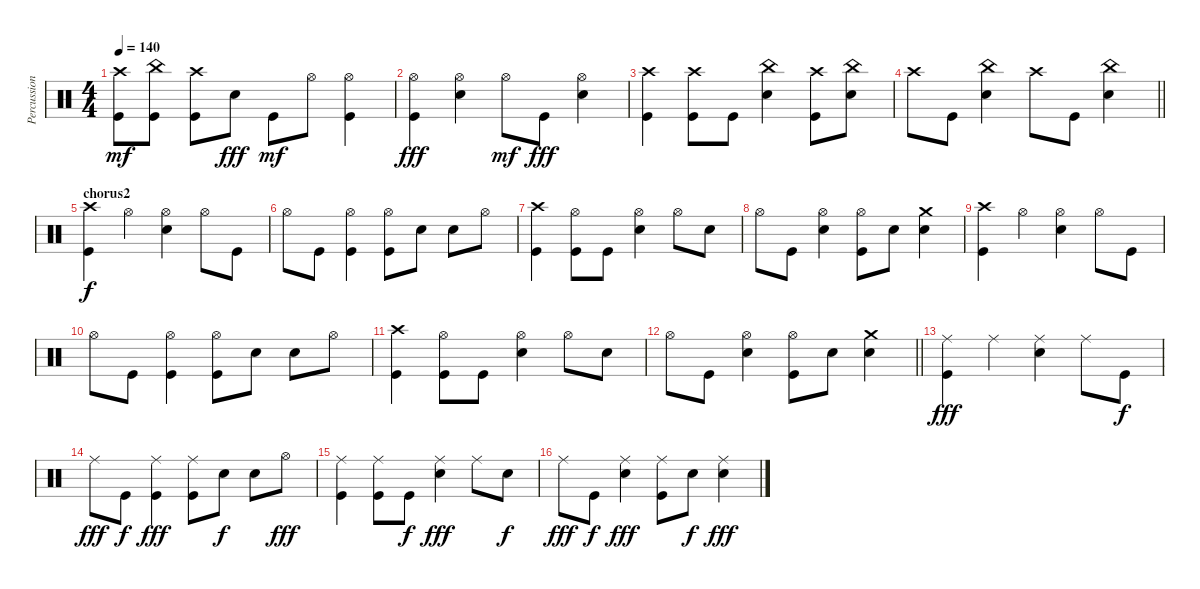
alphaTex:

\track ("Percussion" "Percussion") {instrument percussion}
\staff {score}
\articulation defaults
\ts (4 4)
\tempo 140
\clef neutral
\ks c
("Kick (hit)" "Crash high (hit)").8{dy mf} ("Kick (hit)" "China (hit)").8 ("Kick (hit)" "Crash high (hit)").8 "Snare (hit) 2".8{dy fff} "Kick (hit)".8{dy mf} "Hi-Hat (open)".8 ("Kick (hit)" "Hi-Hat (open)").4 |
("Hi-Hat (open)" "Kick (hit)").4{dy fff} ("Hi-Hat (open)" "Snare (hit) 2").4 "Hi-Hat (open)".8{dy mf} "Kick (hit)".8{dy fff} ("Hi-Hat (open)" "Snare (hit) 2").4 |
("Kick (hit)" "Crash high (hit)").4 ("Kick (hit)" "Crash high (hit)").8 "Kick (hit)".8 ("Snare (hit) 2" "China (hit)").4 ("Crash high (hit)" "Kick (hit)").8 ("Snare (hit) 2" "China (hit)").8 |
\barLineRight lightlight "Crash high (hit)".8 "Kick (hit)".8
("Snare (hit) 2" "China (hit)").4 "Crash high (hit)".8 "Kick (hit)".8 ("Snare (hit) 2" "China (hit)").4 |
\section ("" "chorus2")
("Kick (hit)" "Crash high (hit)").4{dy f} "Hi-Hat (open)".4 ("Hi-Hat (open)" "Snare (hit) 2").4 "Hi-Hat (open)".8 "Kick (hit)".8 |
"Hi-Hat (open)".8 "Kick (hit)".8 ("Hi-Hat (open)" "Kick (hit)").4 ("Hi-Hat (open)" "Kick (hit)").8 "Snare (hit) 2".8 "Snare (hit) 2".8 "Hi-Hat (open)".8 |
("Crash high (hit)" "Kick (hit)").4 ("Hi-Hat (open)" "Kick (hit)").8 "Kick (hit)".8 ("Hi-Hat (open)" "Snare (hit) 2").4 "Hi-Hat (open)".8 "Snare (hit) 2".8 |
"Hi-Hat (open)".8 "Kick (hit)".8 ("Snare (hit) 2" "Hi-Hat (open)").4 ("Kick (hit)" "Hi-Hat (open)").8 "Snare (hit) 2".8 ("Snare (hit) 2" "Crash medium (hit)").4 |
("Crash high (hit)" "Kick (hit)").4 "Hi-Hat (open)".4 ("Hi-Hat (open)" "Snare (hit) 2").4 "Hi-Hat (open)".8 "Kick (hit)".8 |
"Hi-Hat (open)".8 "Kick (hit)".8 ("Hi-Hat (open)" "Kick (hit)").4 ("Hi-Hat (open)" "Kick (hit)").8 "Snare (hit) 2".8 "Snare (hit) 2".8 "Hi-Hat (open)".8 |
("Crash high (hit)" "Kick (hit)").4 ("Hi-Hat (open)" "Kick (hit)").8 "Kick (hit)".8 ("Hi-Hat (open)" "Snare (hit) 2").4 "Hi-Hat (open)".8 "Snare (hit) 2".8 |
\barLineRight lightlight "Hi-Hat (open)".8 "Kick (hit)".8
("Snare (hit) 2" "Hi-Hat (open)").4 ("Kick (hit)" "Hi-Hat (open)").8 "Snare (hit) 2".8 ("Snare (hit) 2" "Crash medium (hit)").4 |
("Ride (middle)" "Kick (hit)").4{dy fff} "Ride (middle)".4 ("Ride (middle)" "Snare (hit) 2").4 "Ride (middle)".8 "Kick (hit)".8{dy f} |
"Ride (middle)".8{dy fff} "Kick (hit)".8{dy f} ("Ride (middle)" "Kick (hit)").4{dy fff} ("Ride (middle)" "Kick (hit)").8 "Snare (hit) 2".8{dy f} "Snare (hit) 2".8 "Hi-Hat (open)".8{dy fff} |
("Ride (middle)" "Kick (hit)").4 ("Ride (middle)" "Kick (hit)").8 "Kick (hit)".8{dy f} ("Ride (middle)" "Snare (hit) 2").4{dy fff} "Ride (middle)".8 "Snare (hit) 2".8{dy f} |
"Ride (middle)".8{dy fff} "Kick (hit)".8{dy f} ("Snare (hit) 2" "Ride (middle)").4{dy fff} ("Kick (hit)" "Ride (middle)").8 "Snare (hit) 2".8{dy f} ("Snare (hit) 2" "Ride (middle)").4{dy fff}
